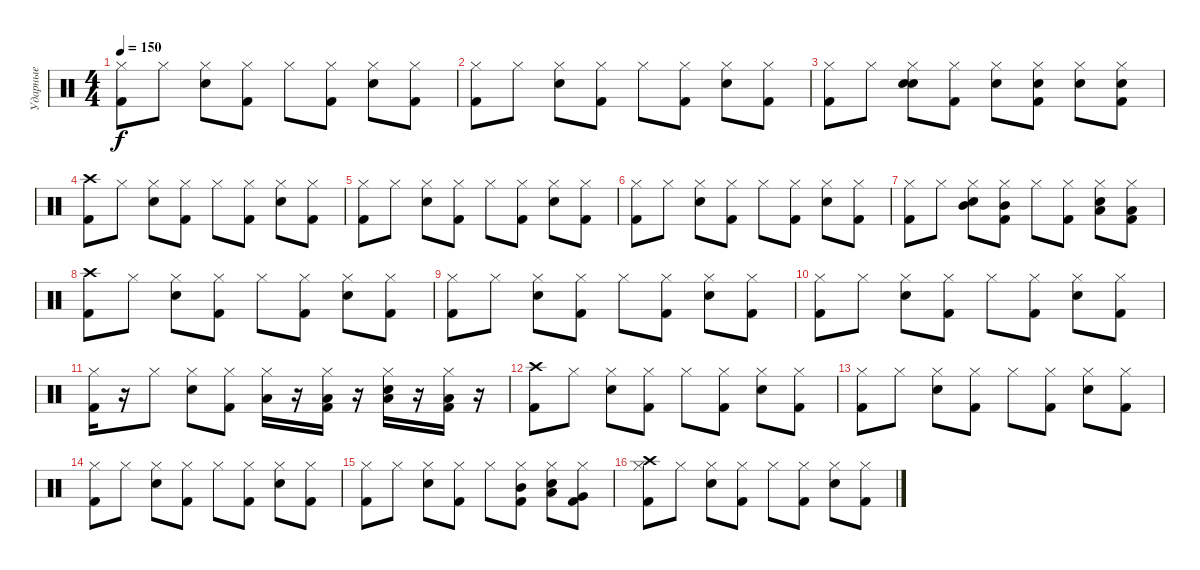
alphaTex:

\track ("Ударные" "Ударные") {instrument percussion}
\staff {score}
\articulation defaults
\ts (4 4)
\tempo 150
\clef neutral
\ks c
("Hi-Hat (closed)" "Kick (hit) 2").8{dy f} "Hi-Hat (closed)".8 ("Snare (hit) 2" "Hi-Hat (closed)").8 ("Hi-Hat (closed)" "Kick (hit) 2").8 "Hi-Hat (closed)".8 ("Hi-Hat (closed)" "Kick (hit) 2").8 ("Snare (hit) 2" "Hi-Hat (closed)").8 ("Hi-Hat (closed)" "Kick (hit) 2").8 |
("Hi-Hat (closed)" "Kick (hit) 2").8 "Hi-Hat (closed)".8 ("Snare (hit) 2" "Hi-Hat (closed)").8 ("Hi-Hat (closed)" "Kick (hit) 2").8 "Hi-Hat (closed)".8 ("Hi-Hat (closed)" "Kick (hit) 2").8 ("Snare (hit) 2" "Hi-Hat (closed)").8 ("Hi-Hat (closed)" "Kick (hit) 2").8 |
("Hi-Hat (closed)" "Kick (hit) 2").8 "Hi-Hat (closed)".8 ("Hi-Hat (closed)" "Hand Clap (hit)" "Snare (hit) 2").8 ("Hi-Hat (closed)" "Kick (hit) 2").8 ("Hi-Hat (closed)" "Hand Clap (hit)").8 ("Hi-Hat (closed)" "Hand Clap (hit)" "Kick (hit) 2").8 ("Hi-Hat (closed)" "Snare (hit) 2").8 ("Hi-Hat (closed)" "Hand Clap (hit)" "Kick (hit) 2").8 |
("Crash high (hit)" "Kick (hit) 2").8 "Hi-Hat (closed)".8 ("Hi-Hat (closed)" "Snare (hit) 2").8 ("Hi-Hat (closed)" "Kick (hit) 2").8 "Hi-Hat (closed)".8 ("Hi-Hat (closed)" "Kick (hit) 2").8 ("Hi-Hat (closed)" "Snare (hit) 2").8 ("Hi-Hat (closed)" "Kick (hit) 2").8 |
("Hi-Hat (closed)" "Kick (hit) 2").8 "Hi-Hat (closed)".8 ("Hi-Hat (closed)" "Snare (hit) 2").8 ("Hi-Hat (closed)" "Kick (hit) 2").8 "Hi-Hat (closed)".8 ("Hi-Hat (closed)" "Kick (hit) 2").8 ("Hi-Hat (closed)" "Snare (hit) 2").8 ("Hi-Hat (closed)" "Kick (hit) 2").8 |
("Hi-Hat (closed)" "Kick (hit) 2").8 "Hi-Hat (closed)".8 ("Hi-Hat (closed)" "Snare (hit) 2").8 ("Hi-Hat (closed)" "Kick (hit) 2").8 "Hi-Hat (closed)".8 ("Hi-Hat (closed)" "Kick (hit) 2").8 ("Hi-Hat (closed)" "Snare (hit) 2").8 ("Hi-Hat (closed)" "Kick (hit) 2").8 |
("Hi-Hat (closed)" "Kick (hit) 2").8 "Hi-Hat (closed)".8 ("Hi-Hat (closed)" "Mid Tom (hit)" "Snare (hit) 2").8 ("Hi-Hat (closed)" "Mid Tom (hit)" "Kick (hit) 2").8 "Hi-Hat (closed)".8 ("Hi-Hat (closed)" "Kick (hit) 2").8 ("Hi-Hat (closed)" "Low Tom (hit)" "Snare (hit) 2").8 ("Hi-Hat (closed)" "Low Tom (hit)" "Kick (hit) 2").8 |
("Crash high (hit)" "Kick (hit) 2").8 "Hi-Hat (closed)".8 ("Hi-Hat (closed)" "Snare (hit) 2").8 ("Hi-Hat (closed)" "Kick (hit) 2").8 "Hi-Hat (closed)".8 ("Hi-Hat (closed)" "Kick (hit) 2").8 ("Hi-Hat (closed)" "Snare (hit) 2").8 ("Hi-Hat (closed)" "Kick (hit) 2").8 |
("Hi-Hat (closed)" "Kick (hit) 2").8 "Hi-Hat (closed)".8 ("Hi-Hat (closed)" "Snare (hit) 2").8 ("Hi-Hat (closed)" "Kick (hit) 2").8 "Hi-Hat (closed)".8 ("Hi-Hat (closed)" "Kick (hit) 2").8 ("Hi-Hat (closed)" "Snare (hit) 2").8 ("Hi-Hat (closed)" "Kick (hit) 2").8 |
("Hi-Hat (closed)" "Kick (hit) 2").8 "Hi-Hat (closed)".8 ("Hi-Hat (closed)" "Snare (hit) 2").8 ("Hi-Hat (closed)" "Kick (hit) 2").8 "Hi-Hat (closed)".8 ("Hi-Hat (closed)" "Kick (hit) 2").8 ("Hi-Hat (closed)" "Snare (hit) 2").8 ("Hi-Hat (closed)" "Kick (hit) 2").8 |
("Hi-Hat (closed)" "Kick (hit) 2").16 r.16 "Hi-Hat (closed)".8 ("Hi-Hat (closed)" "Snare (hit) 2").8 ("Hi-Hat (closed)" "Kick (hit) 2").8 ("Low Tom (hit)" "Hi-Hat (closed)").16 r.16 ("Low Tom (hit)" "Hi-Hat (closed)" "Kick (hit) 2").16 r.16 ("Low Tom (hit)" "Hi-Hat (closed)" "Snare (hit) 2").16 r.16 ("Low Tom (hit)" "Hi-Hat (closed)" "Kick (hit) 2").16 r.16 |
("Crash high (hit)" "Kick (hit) 2").8 "Hi-Hat (closed)".8 ("Snare (hit) 2" "Hi-Hat (closed)").8 ("Hi-Hat (closed)" "Kick (hit) 2").8 "Hi-Hat (closed)".8 ("Hi-Hat (closed)" "Kick (hit) 2").8 ("Snare (hit) 2" "Hi-Hat (closed)").8 ("Hi-Hat (closed)" "Kick (hit) 2").8 |
("Hi-Hat (closed)" "Kick (hit) 2").8 "Hi-Hat (closed)".8 ("Snare (hit) 2" "Hi-Hat (closed)").8 ("Hi-Hat (closed)" "Kick (hit) 2").8 "Hi-Hat (closed)".8 ("Hi-Hat (closed)" "Kick (hit) 2").8 ("Snare (hit) 2" "Hi-Hat (closed)").8 ("Hi-Hat (closed)" "Kick (hit) 2").8 |
("Hi-Hat (closed)" "Kick (hit) 2").8 "Hi-Hat (closed)".8 ("Snare (hit) 2" "Hi-Hat (closed)").8 ("Hi-Hat (closed)" "Kick (hit) 2").8 "Hi-Hat (closed)".8 ("Hi-Hat (closed)" "Kick (hit) 2").8 ("Snare (hit) 2" "Hi-Hat (closed)").8 ("Hi-Hat (closed)" "Kick (hit) 2").8 |
("Hi-Hat (closed)" "Kick (hit) 2").8 "Hi-Hat (closed)".8 ("Snare (hit) 2" "Hi-Hat (closed)").8 ("Hi-Hat (closed)" "Kick (hit) 2").8 "Hi-Hat (closed)".8 ("Mid Tom (hit)" "Hi-Hat (closed)" "Kick (hit) 2").8 ("Low Tom (hit)" "Snare (hit) 2" "Hi-Hat (closed)").8 ("Very Low Tom (hit)" "Hi-Hat (closed)" "Kick (hit) 2").8 |
("Crash high (hit)" "Hi-Hat (closed)" "Kick (hit) 2").8 "Hi-Hat (closed)".8 ("Snare (hit) 2" "Hi-Hat (closed)").8 ("Hi-Hat (closed)" "Kick (hit) 2").8 "Hi-Hat (closed)".8 ("Hi-Hat (closed)" "Kick (hit) 2").8 ("Snare (hit) 2" "Hi-Hat (closed)").8 ("Hi-Hat (closed)" "Kick (hit) 2").8
